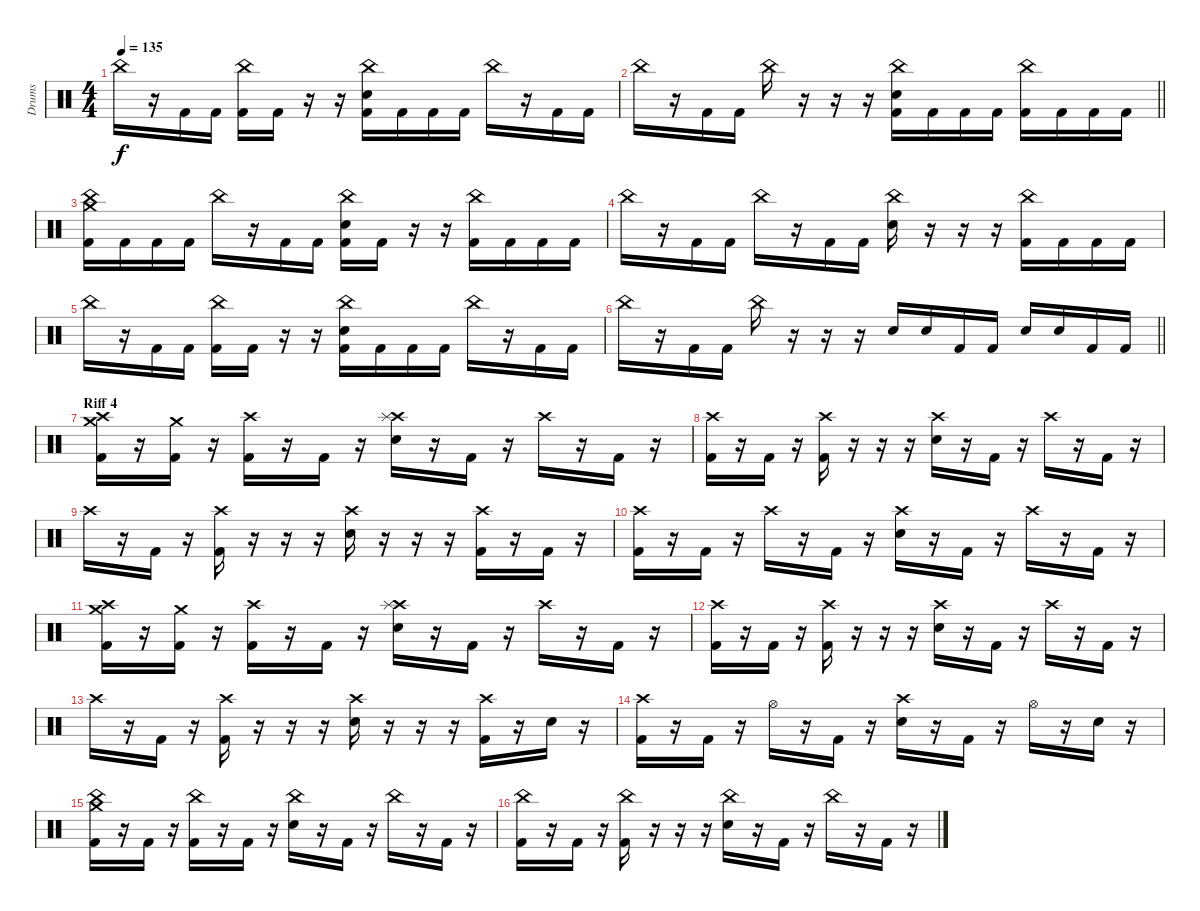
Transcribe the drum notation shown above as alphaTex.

\track ("Drums" "Drums") {instrument percussion}
\staff {score}
\articulation defaults
\ts (4 4)
\tempo 135
\clef neutral
\ks c "China (hit)".16{dy f}
r.16 "Kick (hit) 2".16 "Kick (hit) 2".16 ("China (hit)" "Kick (hit) 2").16 "Kick (hit) 2".16 r.16 r.16 ("China (hit)" "Snare (hit) 2" "Kick (hit) 2").16 "Kick (hit) 2".16 "Kick (hit) 2".16 "Kick (hit) 2".16 "China (hit)".16 r.16 "Kick (hit) 2".16 "Kick (hit) 2".16 |
\barLineRight lightlight "China (hit)".16
r.16 "Kick (hit) 2".16 "Kick (hit) 2".16 "China (hit)".16 r.16 r.16 r.16 ("China (hit)" "Snare (hit) 2" "Kick (hit) 2").16 "Kick (hit) 2".16 "Kick (hit) 2".16 "Kick (hit) 2".16 ("China (hit)" "Kick (hit) 2").16 "Kick (hit) 2".16 "Kick (hit) 2".16 "Kick (hit) 2".16 |
("Crash medium (hit)" "China (hit)" "Kick (hit) 2").16 "Kick (hit) 2".16 "Kick (hit) 2".16 "Kick (hit) 2".16 "China (hit)".16 r.16 "Kick (hit) 2".16 "Kick (hit) 2".16 ("China (hit)" "Snare (hit) 2" "Kick (hit) 2").16 "Kick (hit) 2".16 r.16 r.16 ("China (hit)" "Kick (hit) 2").16 "Kick (hit) 2".16 "Kick (hit) 2".16 "Kick (hit) 2".16 |
"China (hit)".16 r.16 "Kick (hit) 2".16 "Kick (hit) 2".16 "China (hit)".16 r.16 "Kick (hit) 2".16 "Kick (hit) 2".16 ("China (hit)" "Snare (hit) 2").16 r.16 r.16 r.16 ("China (hit)" "Kick (hit) 2").16 "Kick (hit) 2".16 "Kick (hit) 2".16 "Kick (hit) 2".16 |
"China (hit)".16 r.16 "Kick (hit) 2".16 "Kick (hit) 2".16 ("China (hit)" "Kick (hit) 2").16 "Kick (hit) 2".16 r.16 r.16 ("China (hit)" "Snare (hit) 2" "Kick (hit) 2").16 "Kick (hit) 2".16 "Kick (hit) 2".16 "Kick (hit) 2".16 "China (hit)".16 r.16 "Kick (hit) 2".16 "Kick (hit) 2".16 |
\barLineRight lightlight "China (hit)".16
r.16 "Kick (hit) 2".16 "Kick (hit) 2".16 "China (hit)".16 r.16 r.16 r.16 "Snare (hit) 2".16 "Snare (hit) 2".16 "Kick (hit) 2".16 "Kick (hit) 2".16 "Snare (hit) 2".16 "Snare (hit) 2".16 "Kick (hit) 2".16 "Kick (hit) 2".16 |
\section ("" "Riff 4")
("Crash high (hit)" "Crash medium (hit)" "Kick (hit) 2").16 r.16 ("Crash medium (hit)" "Kick (hit) 2").16 r.16 ("Crash high (hit)" "Kick (hit) 2").16 r.16 "Kick (hit) 2".16 r.16 ("Crash high (hit)" "Splash (hit)" "Snare (hit) 2").16 r.16 "Kick (hit) 2".16 r.16 "Crash high (hit)".16 r.16 "Kick (hit) 2".16 r.16 |
("Crash high (hit)" "Kick (hit) 2").16 r.16 "Kick (hit) 2".16 r.16 ("Crash high (hit)" "Kick (hit) 2").16 r.16 r.16 r.16 ("Crash high (hit)" "Snare (hit) 2").16 r.16 "Kick (hit) 2".16 r.16 "Crash high (hit)".16 r.16 "Kick (hit) 2".16 r.16 |
"Crash high (hit)".16 r.16 "Kick (hit) 2".16 r.16 ("Crash high (hit)" "Kick (hit) 2").16 r.16 r.16 r.16 ("Crash high (hit)" "Snare (hit) 2").16 r.16 r.16 r.16 ("Crash high (hit)" "Kick (hit) 2").16 r.16 "Kick (hit) 2".16 r.16 |
("Crash high (hit)" "Kick (hit) 2").16 r.16 "Kick (hit) 2".16 r.16 "Crash high (hit)".16 r.16 "Kick (hit) 2".16 r.16 ("Crash high (hit)" "Snare (hit) 2").16 r.16 "Kick (hit) 2".16 r.16 "Crash high (hit)".16 r.16 "Kick (hit) 2".16 r.16 |
("Crash high (hit)" "Crash medium (hit)" "Kick (hit) 2").16 r.16 ("Crash medium (hit)" "Kick (hit) 2").16 r.16 ("Crash high (hit)" "Kick (hit) 2").16 r.16 "Kick (hit) 2".16 r.16 ("Crash high (hit)" "Splash (hit)" "Snare (hit) 2").16 r.16 "Kick (hit) 2".16 r.16 "Crash high (hit)".16 r.16 "Kick (hit) 2".16 r.16 |
("Crash high (hit)" "Kick (hit) 2").16 r.16 "Kick (hit) 2".16 r.16 ("Crash high (hit)" "Kick (hit) 2").16 r.16 r.16 r.16 ("Crash high (hit)" "Snare (hit) 2").16 r.16 "Kick (hit) 2".16 r.16 "Crash high (hit)".16 r.16 "Kick (hit) 2".16 r.16 |
"Crash high (hit)".16 r.16 "Kick (hit) 2".16 r.16 ("Crash high (hit)" "Kick (hit) 2").16 r.16 r.16 r.16 ("Crash high (hit)" "Snare (hit) 2").16 r.16 r.16 r.16 ("Crash high (hit)" "Kick (hit) 2").16 r.16 "Snare (hit) 2".16 r.16 |
("Crash high (hit)" "Kick (hit) 2").16 r.16 "Kick (hit) 2".16 r.16 "Hi-Hat (open)".16 r.16 "Kick (hit) 2".16 r.16 ("Crash high (hit)" "Snare (hit) 2").16 r.16 "Kick (hit) 2".16 r.16 "Hi-Hat (open)".16 r.16 "Snare (hit) 2".16 r.16 |
("China (hit)" "Crash medium (hit)" "Kick (hit) 2").16 r.16 "Kick (hit) 2".16 r.16 ("China (hit)" "Kick (hit) 2").16 r.16 "Kick (hit) 2".16 r.16 ("China (hit)" "Snare (hit) 2").16 r.16 "Kick (hit) 2".16 r.16 "China (hit)".16 r.16 "Kick (hit) 2".16 r.16 |
("China (hit)" "Kick (hit) 2").16 r.16 "Kick (hit) 2".16 r.16 ("China (hit)" "Kick (hit) 2").16 r.16 r.16 r.16 ("China (hit)" "Snare (hit) 2").16 r.16 "Kick (hit) 2".16 r.16 "China (hit)".16 r.16 "Kick (hit) 2".16 r.16
